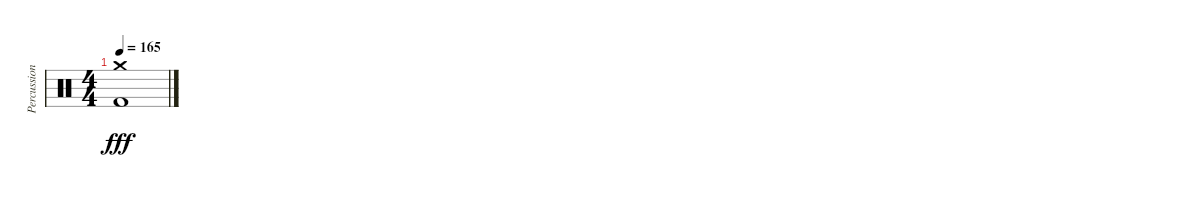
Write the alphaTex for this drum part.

\track ("Percussion" "Percussion") {instrument percussion}
\staff {score}
\articulation defaults
\ts (4 4)
\tempo 165
\clef neutral
\ks c
("Kick (hit) 2" "Crash medium (hit)").1{dy fff}
